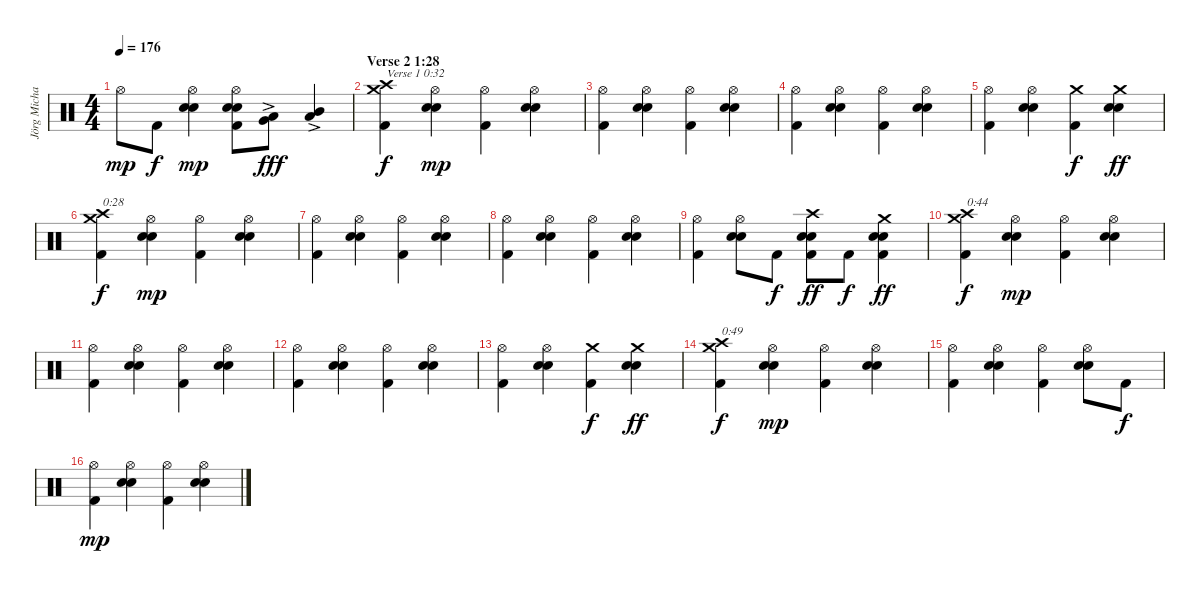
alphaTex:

\track ("Jörg Michael" "Jörg Micha") {instrument percussion}
\staff {score}
\articulation defaults
\ts (4 4)
\tempo 176
\clef neutral
\ks c "Hi-Hat (open)".8{dy mp} "Kick (hit) 2".8{dy f}
("Snare (hit) 2" "Electric Snare (hit)" "Hi-Hat (open)").4{dy mp} ("Kick (hit) 2" "Snare (hit) 2" "Electric Snare (hit)" "Hi-Hat (open)").8 ("Very Low Tom (hit)"{ac} "Low Tom (hit)"{ac}).8{dy fff} ("Mid Tom (hit)"{ac} "Low Tom (hit)"{ac}).4 |
\section ("" "Verse 2 1:28")
("Kick (hit) 2" "Crash high (hit)" "Crash medium (hit)").4{txt "Verse 1 0:32" dy f} ("Snare (hit) 2" "Electric Snare (hit)" "Hi-Hat (open)").4{dy mp} ("Kick (hit) 2" "Hi-Hat (open)").4 ("Snare (hit) 2" "Electric Snare (hit)" "Hi-Hat (open)").4 |
("Kick (hit) 2" "Hi-Hat (open)").4 ("Snare (hit) 2" "Electric Snare (hit)" "Hi-Hat (open)").4 ("Kick (hit) 2" "Hi-Hat (open)").4 ("Snare (hit) 2" "Electric Snare (hit)" "Hi-Hat (open)").4 |
("Kick (hit) 2" "Hi-Hat (open)").4 ("Snare (hit) 2" "Electric Snare (hit)" "Hi-Hat (open)").4 ("Kick (hit) 2" "Hi-Hat (open)").4 ("Snare (hit) 2" "Electric Snare (hit)" "Hi-Hat (open)").4 |
("Kick (hit) 2" "Hi-Hat (open)").4 ("Snare (hit) 2" "Electric Snare (hit)" "Hi-Hat (open)").4 ("Kick (hit) 2" "Crash medium (hit)").4{dy f} ("Snare (hit) 2" "Electric Snare (hit)" "Crash medium (hit)").4{dy ff} |
("Kick (hit) 2" "Crash high (hit)" "Crash medium (hit)").4{txt "0:28" dy f} ("Snare (hit) 2" "Electric Snare (hit)" "Hi-Hat (open)").4{dy mp} ("Kick (hit) 2" "Hi-Hat (open)").4 ("Snare (hit) 2" "Electric Snare (hit)" "Hi-Hat (open)").4 |
("Kick (hit) 2" "Hi-Hat (open)").4 ("Snare (hit) 2" "Electric Snare (hit)" "Hi-Hat (open)").4 ("Kick (hit) 2" "Hi-Hat (open)").4 ("Snare (hit) 2" "Electric Snare (hit)" "Hi-Hat (open)").4 |
("Kick (hit) 2" "Hi-Hat (open)").4 ("Snare (hit) 2" "Electric Snare (hit)" "Hi-Hat (open)").4 ("Kick (hit) 2" "Hi-Hat (open)").4 ("Snare (hit) 2" "Electric Snare (hit)" "Hi-Hat (open)").4 |
("Kick (hit) 2" "Hi-Hat (open)").4 ("Snare (hit) 2" "Electric Snare (hit)" "Hi-Hat (open)").8 "Kick (hit) 2".8{dy f} ("Kick (hit) 2" "Snare (hit) 2" "Electric Snare (hit)" "Crash high (hit)").8{dy ff} "Kick (hit) 2".8{dy f} ("Kick (hit) 2" "Snare (hit) 2" "Electric Snare (hit)" "Crash medium (hit)").4{dy ff} |
("Kick (hit) 2" "Crash high (hit)" "Crash medium (hit)").4{txt "0:44" dy f} ("Snare (hit) 2" "Electric Snare (hit)" "Hi-Hat (open)").4{dy mp} ("Kick (hit) 2" "Hi-Hat (open)").4 ("Snare (hit) 2" "Electric Snare (hit)" "Hi-Hat (open)").4 |
("Kick (hit) 2" "Hi-Hat (open)").4 ("Snare (hit) 2" "Electric Snare (hit)" "Hi-Hat (open)").4 ("Kick (hit) 2" "Hi-Hat (open)").4 ("Snare (hit) 2" "Electric Snare (hit)" "Hi-Hat (open)").4 |
("Kick (hit) 2" "Hi-Hat (open)").4 ("Snare (hit) 2" "Electric Snare (hit)" "Hi-Hat (open)").4 ("Kick (hit) 2" "Hi-Hat (open)").4 ("Snare (hit) 2" "Electric Snare (hit)" "Hi-Hat (open)").4 |
("Kick (hit) 2" "Hi-Hat (open)").4 ("Snare (hit) 2" "Electric Snare (hit)" "Hi-Hat (open)").4 ("Kick (hit) 2" "Crash medium (hit)").4{dy f} ("Snare (hit) 2" "Electric Snare (hit)" "Crash medium (hit)").4{dy ff} |
("Kick (hit) 2" "Crash high (hit)" "Crash medium (hit)").4{txt "0:49" dy f} ("Snare (hit) 2" "Electric Snare (hit)" "Hi-Hat (open)").4{dy mp} ("Kick (hit) 2" "Hi-Hat (open)").4 ("Snare (hit) 2" "Electric Snare (hit)" "Hi-Hat (open)").4 |
("Kick (hit) 2" "Hi-Hat (open)").4 ("Snare (hit) 2" "Electric Snare (hit)" "Hi-Hat (open)").4 ("Kick (hit) 2" "Hi-Hat (open)").4 ("Snare (hit) 2" "Electric Snare (hit)" "Hi-Hat (open)").8 "Kick (hit) 2".8{dy f} |
("Kick (hit) 2" "Hi-Hat (open)").4{dy mp} ("Snare (hit) 2" "Electric Snare (hit)" "Hi-Hat (open)").4 ("Kick (hit) 2" "Hi-Hat (open)").4 ("Snare (hit) 2" "Electric Snare (hit)" "Hi-Hat (open)").4
